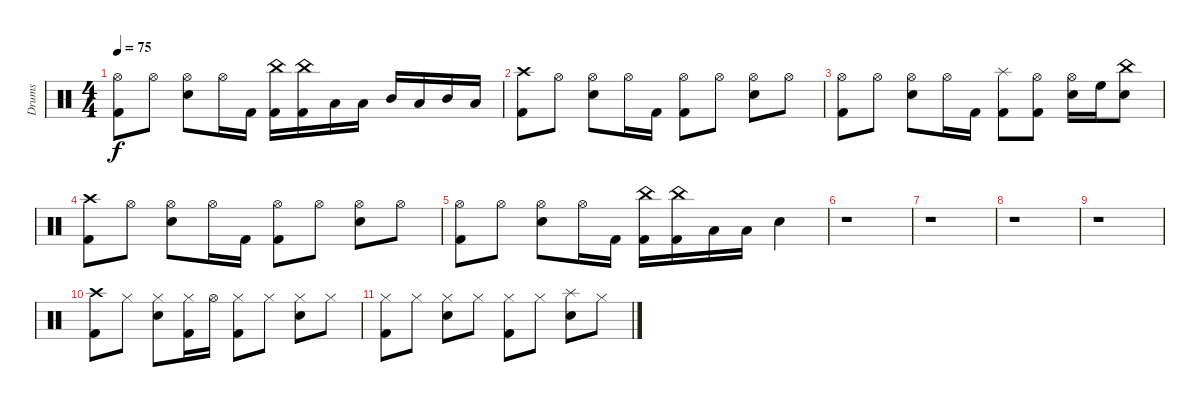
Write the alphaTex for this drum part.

\track ("Drums" "Drums") {instrument percussion}
\staff {score}
\articulation defaults
\ts (4 4)
\tempo 75
\clef neutral
\ks c
("Hi-Hat (open)" "Kick (hit) 2").8{dy f} "Hi-Hat (open)".8 ("Hi-Hat (open)" "Snare (hit) 2").8 "Hi-Hat (open)".16 "Kick (hit) 2".16 ("China (hit)" "Kick (hit) 2").16 ("China (hit)" "Kick (hit) 2").16 "Low Floor Tom (hit)".16 "Low Floor Tom (hit)".16 "Mid Tom (hit)".16 "Low Tom (hit)".16 "Mid Tom (hit)".16 "Low Tom (hit)".16 |
("Crash high (hit)" "Kick (hit) 2").8 "Hi-Hat (open)".8 ("Hi-Hat (open)" "Snare (hit) 2").8 "Hi-Hat (open)".16 "Kick (hit) 2".16 ("Hi-Hat (open)" "Kick (hit) 2").8 "Hi-Hat (open)".8 ("Hi-Hat (open)" "Snare (hit) 2").8 "Hi-Hat (open)".8 |
("Hi-Hat (open)" "Kick (hit) 2").8 "Hi-Hat (open)".8 ("Hi-Hat (open)" "Snare (hit) 2").8 "Hi-Hat (open)".16 "Kick (hit) 2".16 ("Splash (hit)" "Kick (hit) 2").8 ("Hi-Hat (open)" "Kick (hit) 2").8 ("Hi-Hat (open)" "Snare (hit) 2").16 "High Floor Tom (hit)".16 ("China (hit)" "Snare (hit) 2").8 |
("Crash high (hit)" "Kick (hit) 2").8 "Hi-Hat (open)".8 ("Hi-Hat (open)" "Snare (hit) 2").8 "Hi-Hat (open)".16 "Kick (hit) 2".16 ("Hi-Hat (open)" "Kick (hit) 2").8 "Hi-Hat (open)".8 ("Hi-Hat (open)" "Snare (hit) 2").8 "Hi-Hat (open)".8 |
("Hi-Hat (open)" "Kick (hit) 2").8 "Hi-Hat (open)".8 ("Hi-Hat (open)" "Snare (hit) 2").8 "Hi-Hat (open)".16 "Kick (hit) 2".16 ("China (hit)" "Kick (hit) 2").16 ("China (hit)" "Kick (hit) 2").16 "Low Floor Tom (hit)".16 "Low Floor Tom (hit)".16 "Snare (hit) 2".4 |
r.1 |
r.1 |
r.1 |
r.1 |
("Crash high (hit)" "Kick (hit) 2").8 "Hi-Hat (closed)".8 ("Hi-Hat (closed)" "Snare (hit) 2").8 ("Hi-Hat (closed)" "Kick (hit) 2").16 "Hi-Hat (open)".16 ("Hi-Hat (closed)" "Kick (hit) 2").8 "Hi-Hat (closed)".8 ("Hi-Hat (closed)" "Snare (hit) 2").8 "Hi-Hat (closed)".8 |
("Hi-Hat (closed)" "Kick (hit) 2").8 "Hi-Hat (closed)".8 ("Hi-Hat (closed)" "Snare (hit) 2").8 "Hi-Hat (closed)".8 ("Hi-Hat (closed)" "Kick (hit) 2").8 "Hi-Hat (closed)".8 ("Splash (hit)" "Snare (hit) 2").8 "Hi-Hat (closed)".8
